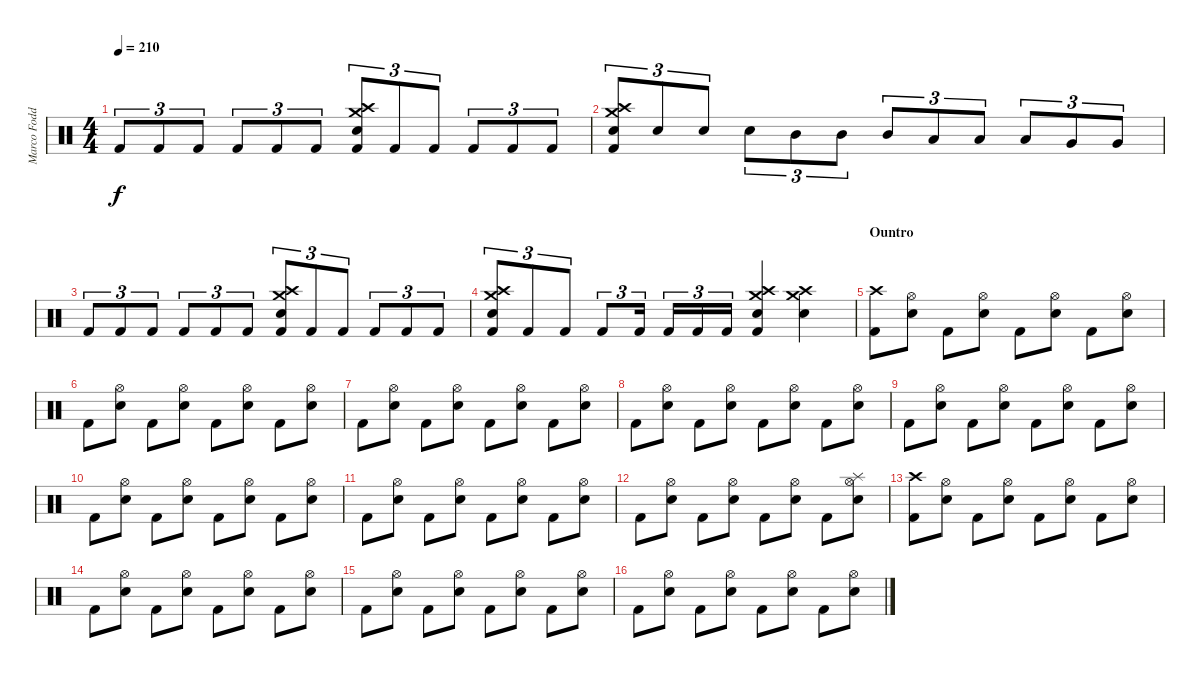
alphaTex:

\track ("Marco Foddis " "Marco Fodd") {instrument percussion}
\staff {score}
\articulation defaults
\ts (4 4)
\tempo 210
\clef neutral
\ks c "Kick (hit) 2".8{tu (3 2) dy f} "Kick (hit) 2".8{tu (3 2)} "Kick (hit) 2".8{tu (3 2)} "Kick (hit) 2".8{tu (3 2)} "Kick (hit) 2".8{tu (3 2)} "Kick (hit) 2".8{tu (3 2)}
("Crash high (hit)" "Crash medium (hit)" "Electric Snare (hit)" "Kick (hit) 2").8{tu (3 2)} "Kick (hit) 2".8{tu (3 2)} "Kick (hit) 2".8{tu (3 2)} "Kick (hit) 2".8{tu (3 2)} "Kick (hit) 2".8{tu (3 2)} "Kick (hit) 2".8{tu (3 2)} |
("Crash high (hit)" "Crash medium (hit)" "Electric Snare (hit)" "Kick (hit) 2").8{tu (3 2)} "Electric Snare (hit)".8{tu (3 2)} "Electric Snare (hit)".8{tu (3 2)} "Electric Snare (hit)".8{tu (3 2)} "Mid Tom (hit)".8{tu (3 2)} "Mid Tom (hit)".8{tu (3 2)} "Mid Tom (hit)".8{tu (3 2)} "Low Tom (hit)".8{tu (3 2)} "Low Tom (hit)".8{tu (3 2)} "Low Tom (hit)".8{tu (3 2)} "Very Low Tom (hit)".8{tu (3 2)} "Very Low Tom (hit)".8{tu (3 2)} |
"Kick (hit) 2".8{tu (3 2)} "Kick (hit) 2".8{tu (3 2)} "Kick (hit) 2".8{tu (3 2)} "Kick (hit) 2".8{tu (3 2)} "Kick (hit) 2".8{tu (3 2)} "Kick (hit) 2".8{tu (3 2)} ("Crash high (hit)" "Crash medium (hit)" "Electric Snare (hit)" "Kick (hit) 2").8{tu (3 2)} "Kick (hit) 2".8{tu (3 2)} "Kick (hit) 2".8{tu (3 2)} "Kick (hit) 2".8{tu (3 2)} "Kick (hit) 2".8{tu (3 2)} "Kick (hit) 2".8{tu (3 2)} |
("Crash high (hit)" "Crash medium (hit)" "Electric Snare (hit)" "Kick (hit) 2").8{tu (3 2)} "Kick (hit) 2".8{tu (3 2)} "Kick (hit) 2".8{tu (3 2)} "Kick (hit) 2".8{tu (3 2)} "Kick (hit) 2".16{tu (3 2)} "Kick (hit) 2".16{tu (3 2)} "Kick (hit) 2".16{tu (3 2)} "Kick (hit) 2".16{tu (3 2)} ("Crash high (hit)" "Crash medium (hit)" "Electric Snare (hit)" "Kick (hit) 2").4 ("Crash high (hit)" "Crash medium (hit)" "Electric Snare (hit)").4 |
\section ("" "Ountro")
("Crash high (hit)" "Kick (hit) 2").8 ("Hi-Hat (open)" "Electric Snare (hit)").8 "Kick (hit) 2".8 ("Hi-Hat (open)" "Electric Snare (hit)").8 "Kick (hit) 2".8 ("Hi-Hat (open)" "Electric Snare (hit)").8 "Kick (hit) 2".8 ("Hi-Hat (open)" "Electric Snare (hit)").8 |
"Kick (hit) 2".8 ("Hi-Hat (open)" "Electric Snare (hit)").8 "Kick (hit) 2".8 ("Hi-Hat (open)" "Electric Snare (hit)").8 "Kick (hit) 2".8 ("Hi-Hat (open)" "Electric Snare (hit)").8 "Kick (hit) 2".8 ("Hi-Hat (open)" "Electric Snare (hit)").8 |
"Kick (hit) 2".8 ("Hi-Hat (open)" "Electric Snare (hit)").8 "Kick (hit) 2".8 ("Hi-Hat (open)" "Electric Snare (hit)").8 "Kick (hit) 2".8 ("Hi-Hat (open)" "Electric Snare (hit)").8 "Kick (hit) 2".8 ("Hi-Hat (open)" "Electric Snare (hit)").8 |
"Kick (hit) 2".8 ("Hi-Hat (open)" "Electric Snare (hit)").8 "Kick (hit) 2".8 ("Hi-Hat (open)" "Electric Snare (hit)").8 "Kick (hit) 2".8 ("Hi-Hat (open)" "Electric Snare (hit)").8 "Kick (hit) 2".8 ("Hi-Hat (open)" "Electric Snare (hit)").8 |
"Kick (hit) 2".8 ("Hi-Hat (open)" "Electric Snare (hit)").8 "Kick (hit) 2".8 ("Hi-Hat (open)" "Electric Snare (hit)").8 "Kick (hit) 2".8 ("Hi-Hat (open)" "Electric Snare (hit)").8 "Kick (hit) 2".8 ("Hi-Hat (open)" "Electric Snare (hit)").8 |
"Kick (hit) 2".8 ("Hi-Hat (open)" "Electric Snare (hit)").8 "Kick (hit) 2".8 ("Hi-Hat (open)" "Electric Snare (hit)").8 "Kick (hit) 2".8 ("Hi-Hat (open)" "Electric Snare (hit)").8 "Kick (hit) 2".8 ("Hi-Hat (open)" "Electric Snare (hit)").8 |
"Kick (hit) 2".8 ("Hi-Hat (open)" "Electric Snare (hit)").8 "Kick (hit) 2".8 ("Hi-Hat (open)" "Electric Snare (hit)").8 "Kick (hit) 2".8 ("Hi-Hat (open)" "Electric Snare (hit)").8 "Kick (hit) 2".8 ("Hi-Hat (open)" "Electric Snare (hit)").8 |
"Kick (hit) 2".8 ("Hi-Hat (open)" "Electric Snare (hit)").8 "Kick (hit) 2".8 ("Hi-Hat (open)" "Electric Snare (hit)").8 "Kick (hit) 2".8 ("Hi-Hat (open)" "Electric Snare (hit)").8 "Kick (hit) 2".8 ("Splash (hit)" "Hi-Hat (open)" "Electric Snare (hit)").8 |
("Crash high (hit)" "Kick (hit) 2").8 ("Hi-Hat (open)" "Electric Snare (hit)").8 "Kick (hit) 2".8 ("Hi-Hat (open)" "Electric Snare (hit)").8 "Kick (hit) 2".8 ("Hi-Hat (open)" "Electric Snare (hit)").8 "Kick (hit) 2".8 ("Hi-Hat (open)" "Electric Snare (hit)").8 |
"Kick (hit) 2".8 ("Hi-Hat (open)" "Electric Snare (hit)").8 "Kick (hit) 2".8 ("Hi-Hat (open)" "Electric Snare (hit)").8 "Kick (hit) 2".8 ("Hi-Hat (open)" "Electric Snare (hit)").8 "Kick (hit) 2".8 ("Hi-Hat (open)" "Electric Snare (hit)").8 |
"Kick (hit) 2".8 ("Hi-Hat (open)" "Electric Snare (hit)").8 "Kick (hit) 2".8 ("Hi-Hat (open)" "Electric Snare (hit)").8 "Kick (hit) 2".8 ("Hi-Hat (open)" "Electric Snare (hit)").8 "Kick (hit) 2".8 ("Hi-Hat (open)" "Electric Snare (hit)").8 |
"Kick (hit) 2".8 ("Hi-Hat (open)" "Electric Snare (hit)").8 "Kick (hit) 2".8 ("Hi-Hat (open)" "Electric Snare (hit)").8 "Kick (hit) 2".8 ("Hi-Hat (open)" "Electric Snare (hit)").8 "Kick (hit) 2".8 ("Hi-Hat (open)" "Electric Snare (hit)").8
